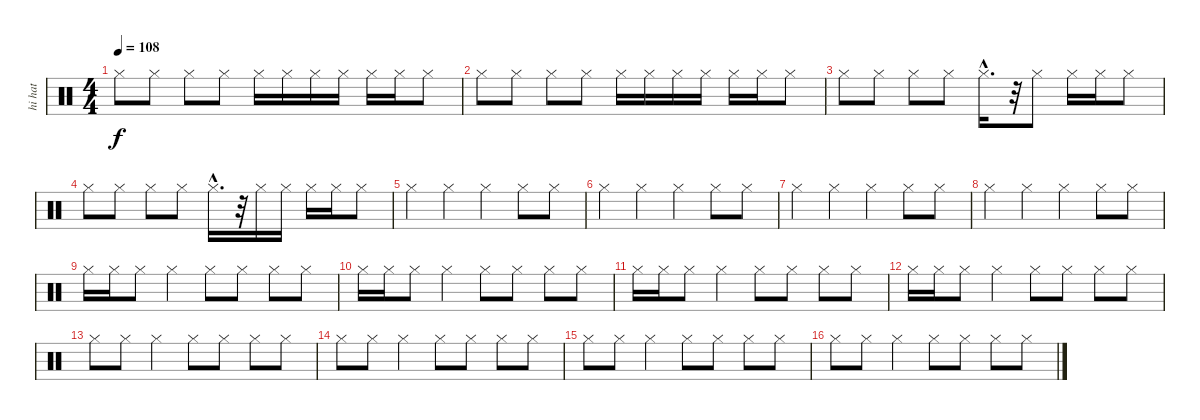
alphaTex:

\track ("hi hat              " "hi hat    ") {instrument percussion}
\staff {score}
\articulation defaults
\ts (4 4)
\tempo 108
\clef neutral
\ks c "Hi-Hat (closed)".8{dy f} "Hi-Hat (closed)".8 "Hi-Hat (closed)".8 "Hi-Hat (closed)".8 "Hi-Hat (closed)".16 "Hi-Hat (closed)".16 "Hi-Hat (closed)".16 "Hi-Hat (closed)".16 "Hi-Hat (closed)".16 "Hi-Hat (closed)".16 "Hi-Hat (closed)".8
|
"Hi-Hat (closed)".8 "Hi-Hat (closed)".8 "Hi-Hat (closed)".8 "Hi-Hat (closed)".8 "Hi-Hat (closed)".16 "Hi-Hat (closed)".16 "Hi-Hat (closed)".16 "Hi-Hat (closed)".16 "Hi-Hat (closed)".16 "Hi-Hat (closed)".16 "Hi-Hat (closed)".8 |
"Hi-Hat (closed)".8 "Hi-Hat (closed)".8 "Hi-Hat (closed)".8 "Hi-Hat (closed)".8 "Hi-Hat (closed)"{hac}.16{d} r.32 "Hi-Hat (closed)".8 "Hi-Hat (closed)".16 "Hi-Hat (closed)".16 "Hi-Hat (closed)".8 |
"Hi-Hat (closed)".8 "Hi-Hat (closed)".8 "Hi-Hat (closed)".8 "Hi-Hat (closed)".8 "Hi-Hat (closed)"{hac}.16{d} r.32 "Hi-Hat (closed)".16 "Hi-Hat (closed)".16 "Hi-Hat (closed)".16 "Hi-Hat (closed)".16 "Hi-Hat (closed)".8 |
"Hi-Hat (closed)".4 "Hi-Hat (closed)".4 "Hi-Hat (closed)".4 "Hi-Hat (closed)".8 "Hi-Hat (closed)".8 |
"Hi-Hat (closed)".4 "Hi-Hat (closed)".4 "Hi-Hat (closed)".4 "Hi-Hat (closed)".8 "Hi-Hat (closed)".8 |
"Hi-Hat (closed)".4 "Hi-Hat (closed)".4 "Hi-Hat (closed)".4 "Hi-Hat (closed)".8 "Hi-Hat (closed)".8 |
"Hi-Hat (closed)".4 "Hi-Hat (closed)".4 "Hi-Hat (closed)".4 "Hi-Hat (closed)".8 "Hi-Hat (closed)".8 |
"Hi-Hat (closed)".16 "Hi-Hat (closed)".16 "Hi-Hat (closed)".8 "Hi-Hat (closed)".4 "Hi-Hat (closed)".8 "Hi-Hat (closed)".8 "Hi-Hat (closed)".8 "Hi-Hat (closed)".8 |
"Hi-Hat (closed)".16 "Hi-Hat (closed)".16 "Hi-Hat (closed)".8 "Hi-Hat (closed)".4 "Hi-Hat (closed)".8 "Hi-Hat (closed)".8 "Hi-Hat (closed)".8 "Hi-Hat (closed)".8 |
"Hi-Hat (closed)".16 "Hi-Hat (closed)".16 "Hi-Hat (closed)".8 "Hi-Hat (closed)".4 "Hi-Hat (closed)".8 "Hi-Hat (closed)".8 "Hi-Hat (closed)".8 "Hi-Hat (closed)".8 |
"Hi-Hat (closed)".16 "Hi-Hat (closed)".16 "Hi-Hat (closed)".8 "Hi-Hat (closed)".4 "Hi-Hat (closed)".8 "Hi-Hat (closed)".8 "Hi-Hat (closed)".8 "Hi-Hat (closed)".8 |
"Hi-Hat (closed)".8 "Hi-Hat (closed)".8 "Hi-Hat (closed)".4 "Hi-Hat (closed)".8 "Hi-Hat (closed)".8 "Hi-Hat (closed)".8 "Hi-Hat (closed)".8 |
"Hi-Hat (closed)".8 "Hi-Hat (closed)".8 "Hi-Hat (closed)".4 "Hi-Hat (closed)".8 "Hi-Hat (closed)".8 "Hi-Hat (closed)".8 "Hi-Hat (closed)".8 |
"Hi-Hat (closed)".8 "Hi-Hat (closed)".8 "Hi-Hat (closed)".4 "Hi-Hat (closed)".8 "Hi-Hat (closed)".8 "Hi-Hat (closed)".8 "Hi-Hat (closed)".8 |
"Hi-Hat (closed)".8 "Hi-Hat (closed)".8 "Hi-Hat (closed)".4 "Hi-Hat (closed)".8 "Hi-Hat (closed)".8 "Hi-Hat (closed)".8 "Hi-Hat (closed)".8
